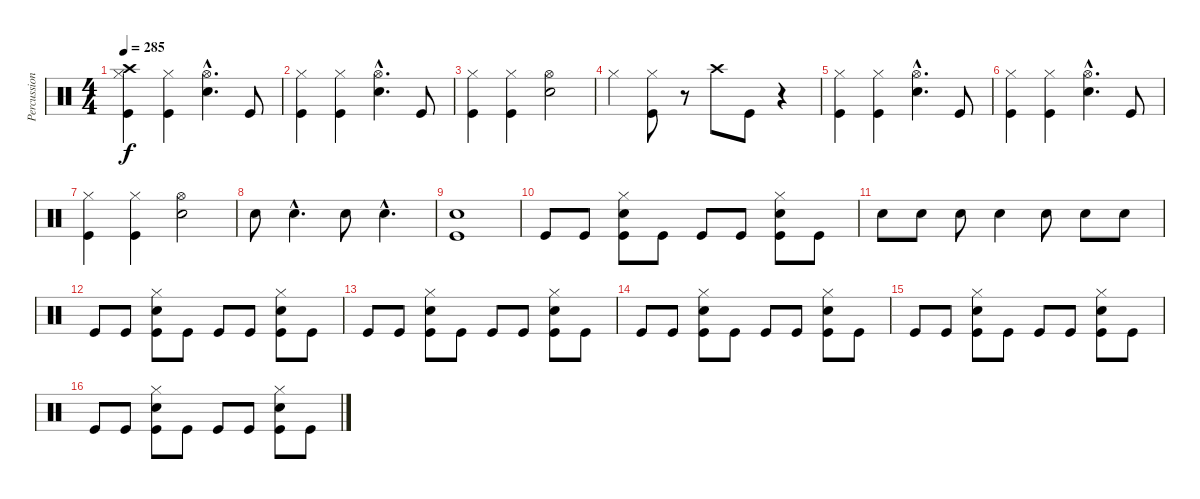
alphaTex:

\track ("Percussion" "Percussion") {instrument percussion}
\staff {score}
\articulation defaults
\ts (4 4)
\tempo 285
\clef neutral
\ks c
("Crash high (hit)" "Hi-Hat (closed)" "Kick (hit)").4{dy f} ("Hi-Hat (closed)" "Kick (hit)").4 ("Snare (hit) 2"{hac} "Hi-Hat (open)"{hac}).4{d} "Kick (hit)".8 |
("Hi-Hat (closed)" "Kick (hit)").4 ("Hi-Hat (closed)" "Kick (hit)").4 ("Snare (hit) 2"{hac} "Hi-Hat (open)"{hac}).4{d} "Kick (hit)".8 |
("Hi-Hat (closed)" "Kick (hit)").4 ("Hi-Hat (closed)" "Kick (hit)").4 ("Snare (hit) 2" "Hi-Hat (open)").2 |
"Hi-Hat (closed)".4 ("Hi-Hat (closed)" "Kick (hit)").8 r.8 "Crash high (hit)".8 "Kick (hit)".8 r.4 |
("Hi-Hat (closed)" "Kick (hit)").4 ("Hi-Hat (closed)" "Kick (hit)").4 ("Snare (hit) 2"{hac} "Hi-Hat (open)"{hac}).4{d} "Kick (hit)".8 |
("Hi-Hat (closed)" "Kick (hit)").4 ("Hi-Hat (closed)" "Kick (hit)").4 ("Snare (hit) 2"{hac} "Hi-Hat (open)"{hac}).4{d} "Kick (hit)".8 |
("Hi-Hat (closed)" "Kick (hit)").4 ("Hi-Hat (closed)" "Kick (hit)").4 ("Snare (hit) 2" "Hi-Hat (open)").2 |
"Snare (hit) 2".8 "Snare (hit) 2"{hac}.4{d} "Snare (hit) 2".8 "Snare (hit) 2"{hac}.4{d} |
("Snare (hit) 2" "Kick (hit)").1 |
"Kick (hit)".8 "Kick (hit)".8 ("Snare (hit) 2" "Hi-Hat (closed)" "Kick (hit)").8 "Kick (hit)".8 "Kick (hit)".8 "Kick (hit)".8 ("Snare (hit) 2" "Hi-Hat (closed)" "Kick (hit)").8 "Kick (hit)".8 |
"Snare (hit) 2".8 "Snare (hit) 2".8 "Snare (hit) 2".8 "Snare (hit) 2".4 "Snare (hit) 2".8 "Snare (hit) 2".8 "Snare (hit) 2".8 |
"Kick (hit)".8 "Kick (hit)".8 ("Snare (hit) 2" "Hi-Hat (closed)" "Kick (hit)").8 "Kick (hit)".8 "Kick (hit)".8 "Kick (hit)".8 ("Snare (hit) 2" "Hi-Hat (closed)" "Kick (hit)").8 "Kick (hit)".8 |
"Kick (hit)".8 "Kick (hit)".8 ("Snare (hit) 2" "Hi-Hat (closed)" "Kick (hit)").8 "Kick (hit)".8 "Kick (hit)".8 "Kick (hit)".8 ("Snare (hit) 2" "Hi-Hat (closed)" "Kick (hit)").8 "Kick (hit)".8 |
"Kick (hit)".8 "Kick (hit)".8 ("Snare (hit) 2" "Hi-Hat (closed)" "Kick (hit)").8 "Kick (hit)".8 "Kick (hit)".8 "Kick (hit)".8 ("Snare (hit) 2" "Hi-Hat (closed)" "Kick (hit)").8 "Kick (hit)".8 |
"Kick (hit)".8 "Kick (hit)".8 ("Snare (hit) 2" "Hi-Hat (closed)" "Kick (hit)").8 "Kick (hit)".8 "Kick (hit)".8 "Kick (hit)".8 ("Snare (hit) 2" "Hi-Hat (closed)" "Kick (hit)").8 "Kick (hit)".8 |
"Kick (hit)".8 "Kick (hit)".8 ("Snare (hit) 2" "Hi-Hat (closed)" "Kick (hit)").8 "Kick (hit)".8 "Kick (hit)".8 "Kick (hit)".8 ("Snare (hit) 2" "Hi-Hat (closed)" "Kick (hit)").8 "Kick (hit)".8
